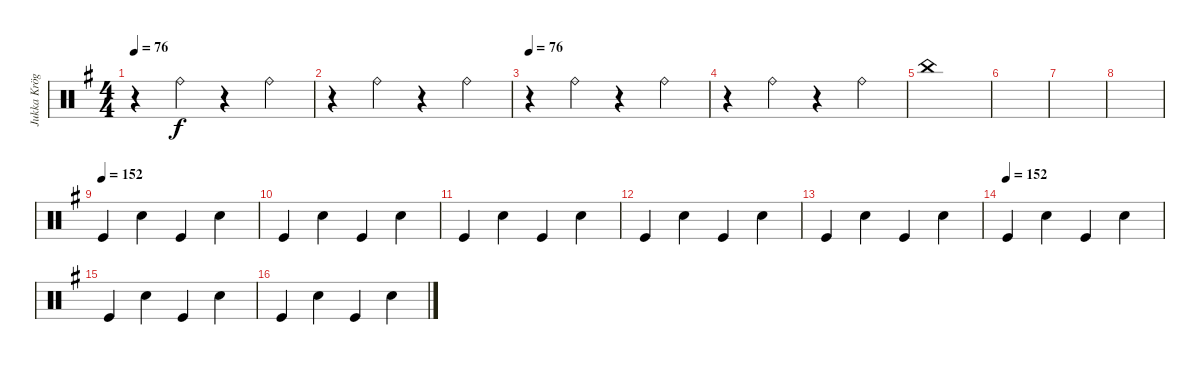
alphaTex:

\track ("Jukka Kröger" "Jukka Krög") {instrument percussion}
\staff {score}
\articulation defaults
\ts (4 4)
\tempo 76
\clef neutral
\ks eminor
r.4{dy f} "Ride (bell)".4 r.4 "Ride (bell)".4 |
r.4 "Ride (bell)".4 r.4 "Ride (bell)".4 |
\tempo 76
r.4 "Ride (bell)".4 r.4 "Ride (bell)".4 |
r.4 "Ride (bell)".4 r.4 "Ride (bell)".4 |
"China (hit)".1 |
|
|
|
\tempo (152)
"Kick (hit)".4 "Snare (hit) 2".4 "Kick (hit)".4 "Snare (hit) 2".4 |
"Kick (hit)".4 "Snare (hit) 2".4 "Kick (hit)".4 "Snare (hit) 2".4 |
"Kick (hit)".4 "Snare (hit) 2".4 "Kick (hit)".4 "Snare (hit) 2".4 |
"Kick (hit)".4 "Snare (hit) 2".4 "Kick (hit)".4 "Snare (hit) 2".4 |
"Kick (hit)".4 "Snare (hit) 2".4 "Kick (hit)".4 "Snare (hit) 2".4 |
\tempo (152)
"Kick (hit)".4 "Snare (hit) 2".4 "Kick (hit)".4 "Snare (hit) 2".4 |
"Kick (hit)".4 "Snare (hit) 2".4 "Kick (hit)".4 "Snare (hit) 2".4 |
"Kick (hit)".4 "Snare (hit) 2".4 "Kick (hit)".4 "Snare (hit) 2".4
